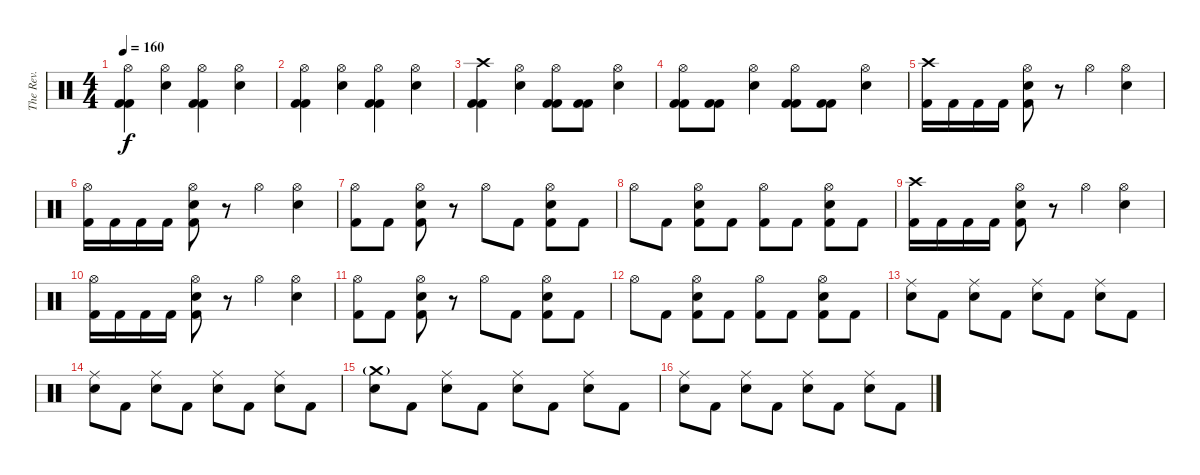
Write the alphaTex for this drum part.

\track ("The Rev." "The Rev.") {instrument percussion}
\staff {score}
\articulation defaults
\ts (4 4)
\tempo 160
\clef neutral
\ks c
("Hi-Hat (open)" "Kick (hit) 2" "Kick (hit) 2").4{dy f} ("Hi-Hat (open)" "Electric Snare (hit)").4 ("Hi-Hat (open)" "Kick (hit) 2" "Kick (hit) 2").4 ("Hi-Hat (open)" "Electric Snare (hit)").4 |
("Hi-Hat (open)" "Kick (hit) 2" "Kick (hit) 2").4 ("Hi-Hat (open)" "Electric Snare (hit)").4 ("Hi-Hat (open)" "Kick (hit) 2" "Kick (hit) 2").4 ("Hi-Hat (open)" "Electric Snare (hit)").4 |
("Crash high (hit)" "Kick (hit) 2" "Kick (hit) 2").4 ("Hi-Hat (open)" "Electric Snare (hit)").4 ("Hi-Hat (open)" "Kick (hit) 2" "Kick (hit) 2").8 ("Kick (hit) 2" "Kick (hit) 2").8 ("Hi-Hat (open)" "Electric Snare (hit)").4 |
("Hi-Hat (open)" "Kick (hit) 2" "Kick (hit) 2").8 ("Kick (hit) 2" "Kick (hit) 2").8 ("Hi-Hat (open)" "Electric Snare (hit)").4 ("Hi-Hat (open)" "Kick (hit) 2" "Kick (hit) 2").8 ("Kick (hit) 2" "Kick (hit) 2").8 ("Hi-Hat (open)" "Electric Snare (hit)").4 |
("Crash high (hit)" "Kick (hit) 2").16 "Kick (hit) 2".16 "Kick (hit) 2".16 "Kick (hit) 2".16 ("Hi-Hat (open)" "Electric Snare (hit)" "Kick (hit) 2").8 r.8 "Hi-Hat (open)".4 ("Hi-Hat (open)" "Electric Snare (hit)").4 |
("Hi-Hat (open)" "Kick (hit) 2").16 "Kick (hit) 2".16 "Kick (hit) 2".16 "Kick (hit) 2".16 ("Hi-Hat (open)" "Electric Snare (hit)" "Kick (hit) 2").8 r.8 "Hi-Hat (open)".4 ("Hi-Hat (open)" "Electric Snare (hit)").4 |
("Hi-Hat (open)" "Kick (hit) 2").8 "Kick (hit) 2".8 ("Hi-Hat (open)" "Electric Snare (hit)" "Kick (hit) 2").8 r.8 "Hi-Hat (open)".8 "Kick (hit) 2".8 ("Hi-Hat (open)" "Electric Snare (hit)" "Kick (hit) 2").8 "Kick (hit) 2".8 |
"Hi-Hat (open)".8 "Kick (hit) 2".8 ("Hi-Hat (open)" "Electric Snare (hit)" "Kick (hit) 2").8 "Kick (hit) 2".8 ("Hi-Hat (open)" "Kick (hit) 2").8 "Kick (hit) 2".8 ("Hi-Hat (open)" "Electric Snare (hit)" "Kick (hit) 2").8 "Kick (hit) 2".8 |
("Crash high (hit)" "Kick (hit) 2").16 "Kick (hit) 2".16 "Kick (hit) 2".16 "Kick (hit) 2".16 ("Hi-Hat (open)" "Electric Snare (hit)" "Kick (hit) 2").8 r.8 "Hi-Hat (open)".4 ("Hi-Hat (open)" "Electric Snare (hit)").4 |
("Hi-Hat (open)" "Kick (hit) 2").16 "Kick (hit) 2".16 "Kick (hit) 2".16 "Kick (hit) 2".16 ("Hi-Hat (open)" "Electric Snare (hit)" "Kick (hit) 2").8 r.8 "Hi-Hat (open)".4 ("Hi-Hat (open)" "Electric Snare (hit)").4 |
("Hi-Hat (open)" "Kick (hit) 2").8 "Kick (hit) 2".8 ("Hi-Hat (open)" "Electric Snare (hit)" "Kick (hit) 2").8 r.8 "Hi-Hat (open)".8 "Kick (hit) 2".8 ("Hi-Hat (open)" "Electric Snare (hit)" "Kick (hit) 2").8 "Kick (hit) 2".8 |
"Hi-Hat (open)".8 "Kick (hit) 2".8 ("Hi-Hat (open)" "Electric Snare (hit)" "Kick (hit) 2").8 "Kick (hit) 2".8 ("Hi-Hat (open)" "Kick (hit) 2").8 "Kick (hit) 2".8 ("Hi-Hat (open)" "Electric Snare (hit)" "Kick (hit) 2").8 "Kick (hit) 2".8 |
("Ride (middle)" "Electric Snare (hit)").8 "Kick (hit) 2".8 ("Ride (middle)" "Electric Snare (hit)").8 "Kick (hit) 2".8 ("Ride (middle)" "Electric Snare (hit)").8 "Kick (hit) 2".8 ("Ride (middle)" "Electric Snare (hit)").8 "Kick (hit) 2".8 |
("Ride (middle)" "Electric Snare (hit)").8 "Kick (hit) 2".8 ("Ride (middle)" "Electric Snare (hit)").8 "Kick (hit) 2".8 ("Ride (middle)" "Electric Snare (hit)").8 "Kick (hit) 2".8 ("Ride (middle)" "Electric Snare (hit)").8 "Kick (hit) 2".8 |
("Crash medium (hit)"{g} "Electric Snare (hit)").8 "Kick (hit) 2".8 ("Ride (middle)" "Electric Snare (hit)").8 "Kick (hit) 2".8 ("Ride (middle)" "Electric Snare (hit)").8 "Kick (hit) 2".8 ("Ride (middle)" "Electric Snare (hit)").8 "Kick (hit) 2".8 |
("Ride (middle)" "Electric Snare (hit)").8 "Kick (hit) 2".8 ("Ride (middle)" "Electric Snare (hit)").8 "Kick (hit) 2".8 ("Ride (middle)" "Electric Snare (hit)").8 "Kick (hit) 2".8 ("Ride (middle)" "Electric Snare (hit)").8 "Kick (hit) 2".8
